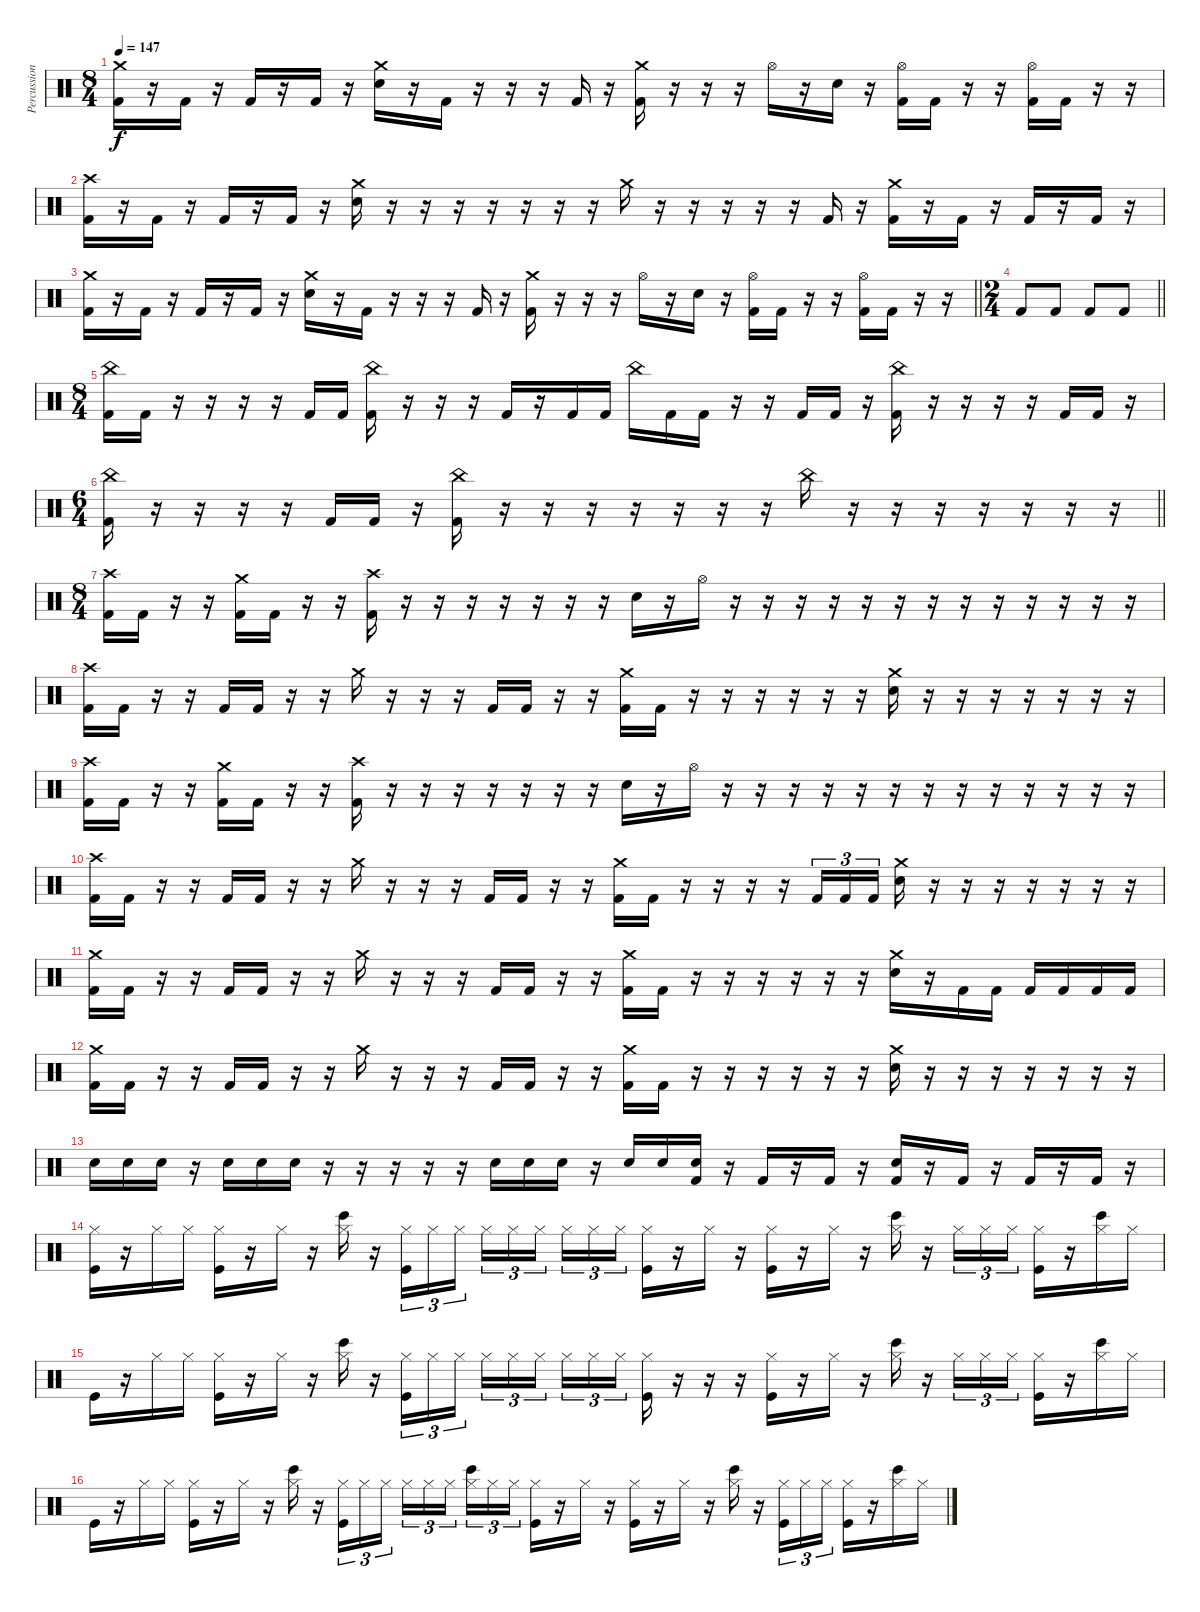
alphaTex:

\track ("Percussion" "Percussion") {instrument percussion}
\staff {score}
\articulation defaults
\ts (8 4)
\tempo 147
\clef neutral
\ks c
("Crash medium (hit)" "Kick (hit) 2").16{dy f} r.16 "Kick (hit) 2".16 r.16 "Kick (hit) 2".16 r.16 "Kick (hit) 2".16 r.16 ("Crash medium (hit)" "Electric Snare (hit)").16 r.16 "Kick (hit) 2".16 r.16 r.16 r.16 "Kick (hit) 2".16 r.16 ("Crash medium (hit)" "Kick (hit) 2").16 r.16 r.16 r.16 "Hi-Hat (open)".16 r.16 "Electric Snare (hit)".16 r.16 ("Hi-Hat (open)" "Kick (hit) 2").16 "Kick (hit) 2".16 r.16 r.16 ("Hi-Hat (open)" "Kick (hit) 2").16 "Kick (hit) 2".16 r.16 r.16 |
("Crash high (hit)" "Kick (hit) 2").16 r.16 "Kick (hit) 2".16 r.16 "Kick (hit) 2".16 r.16 "Kick (hit) 2".16 r.16 ("Crash medium (hit)" "Electric Snare (hit)").16 r.16 r.16 r.16 r.16 r.16 r.16 r.16 "Crash medium (hit)".16 r.16 r.16 r.16 r.16 r.16 "Kick (hit) 2".16 r.16 ("Crash medium (hit)" "Kick (hit) 2").16 r.16 "Kick (hit) 2".16 r.16 "Kick (hit) 2".16 r.16 "Kick (hit) 2".16 r.16 |
\barLineRight lightlight
("Crash medium (hit)" "Kick (hit) 2").16 r.16 "Kick (hit) 2".16 r.16 "Kick (hit) 2".16 r.16 "Kick (hit) 2".16 r.16 ("Crash medium (hit)" "Electric Snare (hit)").16 r.16 "Kick (hit) 2".16 r.16 r.16 r.16 "Kick (hit) 2".16 r.16 ("Crash medium (hit)" "Kick (hit) 2").16 r.16 r.16 r.16 "Hi-Hat (open)".16 r.16 "Electric Snare (hit)".16 r.16 ("Hi-Hat (open)" "Kick (hit) 2").16 "Kick (hit) 2".16 r.16 r.16 ("Hi-Hat (open)" "Kick (hit) 2").16 "Kick (hit) 2".16 r.16 r.16 |
\ts (2 4)
\barLineRight lightlight "Kick (hit) 2".8{balance 16} "Kick (hit) 2".8 "Kick (hit) 2".8{balance 0} "Kick (hit) 2".8
|
\ts (8 4)
("China (hit)" "Kick (hit) 2").16{balance 8} "Kick (hit) 2".16 r.16 r.16 r.16 r.16 "Kick (hit) 2".16 "Kick (hit) 2".16 ("China (hit)" "Kick (hit) 2").16 r.16 r.16 r.16 "Kick (hit) 2".16 r.16 "Kick (hit) 2".16 "Kick (hit) 2".16 "China (hit)".16 "Kick (hit) 2".16 "Kick (hit) 2".16 r.16 r.16 "Kick (hit) 2".16 "Kick (hit) 2".16 r.16 ("China (hit)" "Kick (hit) 2").16 r.16 r.16 r.16 r.16 "Kick (hit) 2".16 "Kick (hit) 2".16 r.16 |
\ts (6 4)
\barLineRight lightlight
("China (hit)" "Kick (hit) 2").16 r.16 r.16 r.16 r.16 "Kick (hit) 2".16 "Kick (hit) 2".16 r.16 ("China (hit)" "Kick (hit) 2").16 r.16 r.16 r.16 r.16 r.16 r.16 r.16 "China (hit)".16 r.16 r.16 r.16 r.16 r.16 r.16 r.16 |
\ts (8 4)
("Crash high (hit)" "Kick (hit) 2").16 "Kick (hit) 2".16 r.16 r.16 ("Crash medium (hit)" "Kick (hit) 2").16 "Kick (hit) 2".16 r.16 r.16 ("Crash high (hit)" "Kick (hit) 2").16 r.16 r.16 r.16 r.16 r.16 r.16 r.16 "Electric Snare (hit)".16 r.16 "Hi-Hat (open)".16 r.16 r.16 r.16 r.16 r.16 r.16 r.16 r.16 r.16 r.16 r.16 r.16 r.16 |
("Crash high (hit)" "Kick (hit) 2").16 "Kick (hit) 2".16 r.16 r.16 "Kick (hit) 2".16 "Kick (hit) 2".16 r.16 r.16 "Crash medium (hit)".16 r.16 r.16 r.16 "Kick (hit) 2".16 "Kick (hit) 2".16 r.16 r.16 ("Crash medium (hit)" "Kick (hit) 2").16 "Kick (hit) 2".16 r.16 r.16 r.16 r.16 r.16 r.16 ("Crash medium (hit)" "Electric Snare (hit)").16 r.16 r.16 r.16 r.16 r.16 r.16 r.16 |
("Crash high (hit)" "Kick (hit) 2").16 "Kick (hit) 2".16 r.16 r.16 ("Crash medium (hit)" "Kick (hit) 2").16 "Kick (hit) 2".16 r.16 r.16 ("Crash high (hit)" "Kick (hit) 2").16 r.16 r.16 r.16 r.16 r.16 r.16 r.16 "Electric Snare (hit)".16 r.16 "Hi-Hat (open)".16 r.16 r.16 r.16 r.16 r.16 r.16 r.16 r.16 r.16 r.16 r.16 r.16 r.16 |
("Crash high (hit)" "Kick (hit) 2").16 "Kick (hit) 2".16 r.16 r.16 "Kick (hit) 2".16 "Kick (hit) 2".16 r.16 r.16 "Crash medium (hit)".16 r.16 r.16 r.16 "Kick (hit) 2".16 "Kick (hit) 2".16 r.16 r.16 ("Crash medium (hit)" "Kick (hit) 2").16 "Kick (hit) 2".16 r.16 r.16 r.16 r.16 "Kick (hit) 2".16{tu (3 2)} "Kick (hit) 2".16{tu (3 2)} "Kick (hit) 2".16{tu (3 2)} ("Crash medium (hit)" "Electric Snare (hit)").16 r.16 r.16 r.16 r.16 r.16 r.16 r.16 |
("Crash medium (hit)" "Kick (hit) 2").16 "Kick (hit) 2".16 r.16 r.16 "Kick (hit) 2".16 "Kick (hit) 2".16 r.16 r.16 "Crash medium (hit)".16 r.16 r.16 r.16 "Kick (hit) 2".16 "Kick (hit) 2".16 r.16 r.16 ("Crash medium (hit)" "Kick (hit) 2").16 "Kick (hit) 2".16 r.16 r.16 r.16 r.16 r.16 r.16 ("Crash medium (hit)" "Electric Snare (hit)").16 r.16 "Kick (hit) 2".16 "Kick (hit) 2".16 "Kick (hit) 2".16 "Kick (hit) 2".16 "Kick (hit) 2".16 "Kick (hit) 2".16 |
("Crash medium (hit)" "Kick (hit) 2").16 "Kick (hit) 2".16 r.16 r.16 "Kick (hit) 2".16 "Kick (hit) 2".16 r.16 r.16 "Crash medium (hit)".16 r.16 r.16 r.16 "Kick (hit) 2".16 "Kick (hit) 2".16 r.16 r.16 ("Crash medium (hit)" "Kick (hit) 2").16 "Kick (hit) 2".16 r.16 r.16 r.16 r.16 r.16 r.16 ("Crash medium (hit)" "Electric Snare (hit)").16 r.16 r.16 r.16 r.16 r.16 r.16 r.16 |
"Electric Snare (hit)".16 "Electric Snare (hit)".16 "Electric Snare (hit)".16 r.16 "Electric Snare (hit)".16 "Electric Snare (hit)".16 "Electric Snare (hit)".16 r.16 r.16 r.16 r.16 r.16 "Electric Snare (hit)".16 "Electric Snare (hit)".16 "Electric Snare (hit)".16 r.16 "Electric Snare (hit)".16 "Electric Snare (hit)".16 ("Electric Snare (hit)" "Kick (hit) 2").16 r.16 "Kick (hit) 2".16 r.16 "Kick (hit) 2".16 r.16 ("Electric Snare (hit)" "Kick (hit) 2").16 r.16 "Kick (hit) 2".16 r.16 "Kick (hit) 2".16 r.16 "Kick (hit) 2".16 r.16 |
("Hi-Hat (closed)" "Kick (hit)").16 r.16 "Hi-Hat (closed)".16 "Hi-Hat (closed)".16 ("Hi-Hat (closed)" "Kick (hit)").16 r.16 "Hi-Hat (closed)".16 r.16 ("Hi-Hat (closed)" "Bongo High (hit)").16 r.16 ("Hi-Hat (closed)" "Kick (hit)").16{tu (3 2)} "Hi-Hat (closed)".16{tu (3 2)} "Hi-Hat (closed)".16{tu (3 2)} "Hi-Hat (closed)".16{tu (3 2)} "Hi-Hat (closed)".16{tu (3 2)} "Hi-Hat (closed)".16{tu (3 2) beam splitsecondary} "Hi-Hat (closed)".16{tu (3 2)} "Hi-Hat (closed)".16{tu (3 2)} "Hi-Hat (closed)".16{tu (3 2)} ("Hi-Hat (closed)" "Kick (hit)").16 r.16 "Hi-Hat (closed)".16 r.16 ("Hi-Hat (closed)" "Kick (hit)").16 r.16 "Hi-Hat (closed)".16 r.16 ("Hi-Hat (closed)" "Bongo High (hit)").16 r.16 "Hi-Hat (closed)".16{tu (3 2)} "Hi-Hat (closed)".16{tu (3 2)} "Hi-Hat (closed)".16{tu (3 2)} ("Hi-Hat (closed)" "Kick (hit)").16 r.16 ("Hi-Hat (closed)" "Bongo High (hit)").16 "Hi-Hat (closed)".16 |
"Kick (hit)".16 r.16 "Hi-Hat (closed)".16 "Hi-Hat (closed)".16 ("Hi-Hat (closed)" "Kick (hit)").16 r.16 "Hi-Hat (closed)".16 r.16 ("Hi-Hat (closed)" "Bongo High (hit)").16 r.16 ("Hi-Hat (closed)" "Kick (hit)").16{tu (3 2)} "Hi-Hat (closed)".16{tu (3 2)} "Hi-Hat (closed)".16{tu (3 2)} "Hi-Hat (closed)".16{tu (3 2)} "Hi-Hat (closed)".16{tu (3 2)} "Hi-Hat (closed)".16{tu (3 2) beam splitsecondary} "Hi-Hat (closed)".16{tu (3 2)} "Hi-Hat (closed)".16{tu (3 2)} "Hi-Hat (closed)".16{tu (3 2)} ("Hi-Hat (closed)" "Kick (hit)").16 r.16 r.16 r.16 ("Hi-Hat (closed)" "Kick (hit)").16 r.16 "Hi-Hat (closed)".16 r.16 ("Hi-Hat (closed)" "Bongo High (hit)").16 r.16 "Hi-Hat (closed)".16{tu (3 2)} "Hi-Hat (closed)".16{tu (3 2)} "Hi-Hat (closed)".16{tu (3 2)} ("Hi-Hat (closed)" "Kick (hit)").16 r.16 ("Hi-Hat (closed)" "Bongo High (hit)").16 "Hi-Hat (closed)".16 |
"Kick (hit)".16 r.16 "Hi-Hat (closed)".16 "Hi-Hat (closed)".16 ("Hi-Hat (closed)" "Kick (hit)").16 r.16 "Hi-Hat (closed)".16 r.16 ("Hi-Hat (closed)" "Bongo High (hit)").16 r.16 ("Hi-Hat (closed)" "Kick (hit)").16{tu (3 2)} "Hi-Hat (closed)".16{tu (3 2)} "Hi-Hat (closed)".16{tu (3 2)} "Hi-Hat (closed)".16{tu (3 2)} "Hi-Hat (closed)".16{tu (3 2)} "Hi-Hat (closed)".16{tu (3 2) beam splitsecondary} ("Hi-Hat (closed)" "Bongo High (hit)").16{tu (3 2)} "Hi-Hat (closed)".16{tu (3 2)} "Hi-Hat (closed)".16{tu (3 2)} ("Hi-Hat (closed)" "Kick (hit)").16 r.16 "Hi-Hat (closed)".16 r.16 ("Hi-Hat (closed)" "Kick (hit)").16 r.16 "Hi-Hat (closed)".16 r.16 ("Hi-Hat (closed)" "Bongo High (hit)").16 r.16 ("Hi-Hat (closed)" "Kick (hit)").16{tu (3 2)} "Hi-Hat (closed)".16{tu (3 2)} "Hi-Hat (closed)".16{tu (3 2)} ("Hi-Hat (closed)" "Kick (hit)").16 r.16 ("Hi-Hat (closed)" "Bongo High (hit)").16 "Hi-Hat (closed)".16
